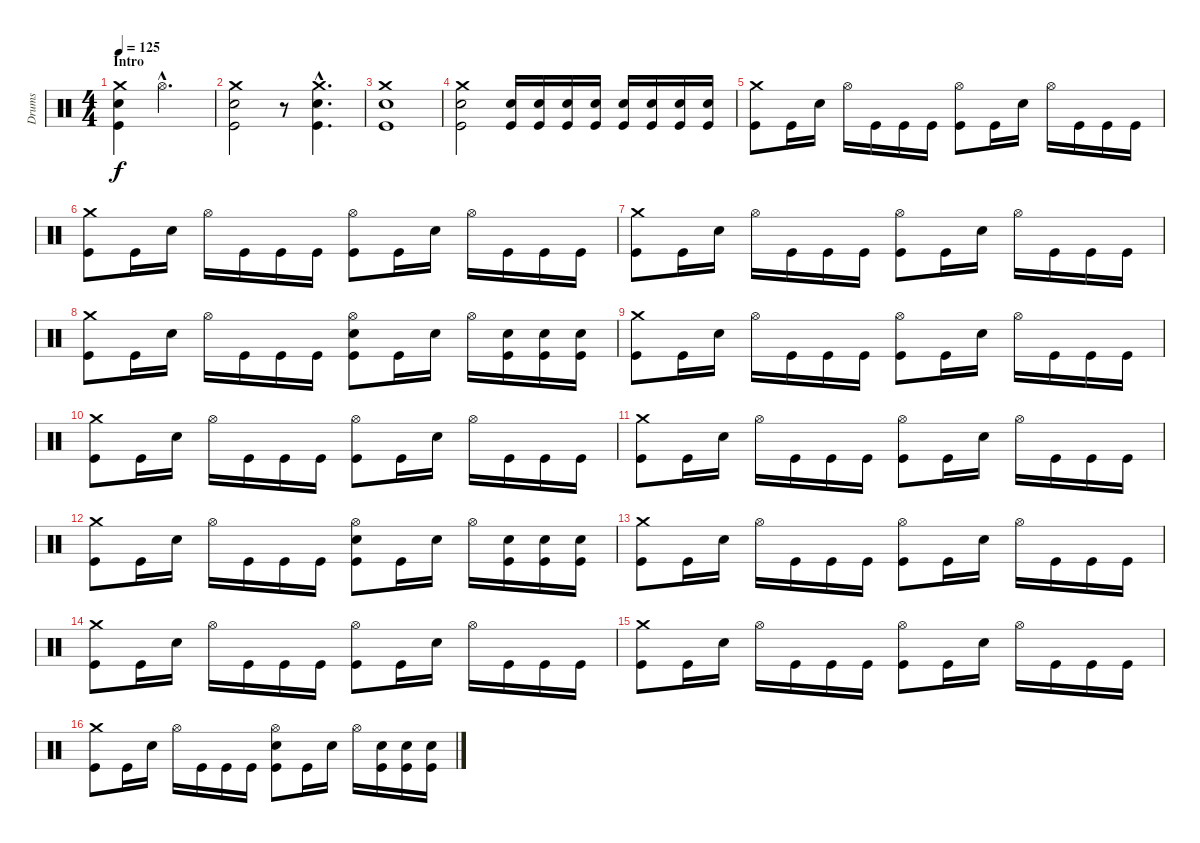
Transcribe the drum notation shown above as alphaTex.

\track ("Drums" "Drums") {instrument percussion}
\staff {score}
\articulation defaults
\ts (4 4)
\section ("" "Intro")
\tempo 125
\clef neutral
\ks c
("Crash medium (hit)" "Electric Snare (hit)" "Kick (hit)").4{dy f} "Hi-Hat (open)"{hac}.2{d} |
("Crash medium (hit)" "Electric Snare (hit)" "Kick (hit)").2 r.8 ("Crash medium (hit)"{hac} "Electric Snare (hit)"{hac} "Kick (hit)"{hac}).4{d} |
("Crash medium (hit)" "Electric Snare (hit)" "Kick (hit)").1 |
("Crash medium (hit)" "Electric Snare (hit)" "Kick (hit)").2 ("Electric Snare (hit)" "Kick (hit)").16 ("Electric Snare (hit)" "Kick (hit)").16 ("Electric Snare (hit)" "Kick (hit)").16 ("Electric Snare (hit)" "Kick (hit)").16 ("Electric Snare (hit)" "Kick (hit)").16 ("Electric Snare (hit)" "Kick (hit)").16 ("Electric Snare (hit)" "Kick (hit)").16 ("Electric Snare (hit)" "Kick (hit)").16 |
("Crash medium (hit)" "Kick (hit)").8 "Kick (hit)".16 "Electric Snare (hit)".16 "Hi-Hat (open)".16 "Kick (hit)".16 "Kick (hit)".16 "Kick (hit)".16 ("Hi-Hat (open)" "Kick (hit)").8 "Kick (hit)".16 "Electric Snare (hit)".16 "Hi-Hat (open)".16 "Kick (hit)".16 "Kick (hit)".16 "Kick (hit)".16 |
("Crash medium (hit)" "Kick (hit)").8 "Kick (hit)".16 "Electric Snare (hit)".16 "Hi-Hat (open)".16 "Kick (hit)".16 "Kick (hit)".16 "Kick (hit)".16 ("Hi-Hat (open)" "Kick (hit)").8 "Kick (hit)".16 "Electric Snare (hit)".16 "Hi-Hat (open)".16 "Kick (hit)".16 "Kick (hit)".16 "Kick (hit)".16 |
("Crash medium (hit)" "Kick (hit)").8 "Kick (hit)".16 "Electric Snare (hit)".16 "Hi-Hat (open)".16 "Kick (hit)".16 "Kick (hit)".16 "Kick (hit)".16 ("Hi-Hat (open)" "Kick (hit)").8 "Kick (hit)".16 "Electric Snare (hit)".16 "Hi-Hat (open)".16 "Kick (hit)".16 "Kick (hit)".16 "Kick (hit)".16 |
("Crash medium (hit)" "Kick (hit)").8 "Kick (hit)".16 "Electric Snare (hit)".16 "Hi-Hat (open)".16 "Kick (hit)".16 "Kick (hit)".16 "Kick (hit)".16 ("Hi-Hat (open)" "Electric Snare (hit)" "Kick (hit)").8 "Kick (hit)".16 "Electric Snare (hit)".16 "Hi-Hat (open)".16 ("Electric Snare (hit)" "Kick (hit)").16 ("Electric Snare (hit)" "Kick (hit)").16 ("Electric Snare (hit)" "Kick (hit)").16 |
("Crash medium (hit)" "Kick (hit)").8 "Kick (hit)".16 "Electric Snare (hit)".16 "Hi-Hat (open)".16 "Kick (hit)".16 "Kick (hit)".16 "Kick (hit)".16 ("Hi-Hat (open)" "Kick (hit)").8 "Kick (hit)".16 "Electric Snare (hit)".16 "Hi-Hat (open)".16 "Kick (hit)".16 "Kick (hit)".16 "Kick (hit)".16 |
("Crash medium (hit)" "Kick (hit)").8 "Kick (hit)".16 "Electric Snare (hit)".16 "Hi-Hat (open)".16 "Kick (hit)".16 "Kick (hit)".16 "Kick (hit)".16 ("Hi-Hat (open)" "Kick (hit)").8 "Kick (hit)".16 "Electric Snare (hit)".16 "Hi-Hat (open)".16 "Kick (hit)".16 "Kick (hit)".16 "Kick (hit)".16 |
("Crash medium (hit)" "Kick (hit)").8 "Kick (hit)".16 "Electric Snare (hit)".16 "Hi-Hat (open)".16 "Kick (hit)".16 "Kick (hit)".16 "Kick (hit)".16 ("Hi-Hat (open)" "Kick (hit)").8 "Kick (hit)".16 "Electric Snare (hit)".16 "Hi-Hat (open)".16 "Kick (hit)".16 "Kick (hit)".16 "Kick (hit)".16 |
("Crash medium (hit)" "Kick (hit)").8 "Kick (hit)".16 "Electric Snare (hit)".16 "Hi-Hat (open)".16 "Kick (hit)".16 "Kick (hit)".16 "Kick (hit)".16 ("Hi-Hat (open)" "Electric Snare (hit)" "Kick (hit)").8 "Kick (hit)".16 "Electric Snare (hit)".16 "Hi-Hat (open)".16 ("Electric Snare (hit)" "Kick (hit)").16 ("Electric Snare (hit)" "Kick (hit)").16 ("Electric Snare (hit)" "Kick (hit)").16 |
("Crash medium (hit)" "Kick (hit)").8 "Kick (hit)".16 "Electric Snare (hit)".16 "Hi-Hat (open)".16 "Kick (hit)".16 "Kick (hit)".16 "Kick (hit)".16 ("Hi-Hat (open)" "Kick (hit)").8 "Kick (hit)".16 "Electric Snare (hit)".16 "Hi-Hat (open)".16 "Kick (hit)".16 "Kick (hit)".16 "Kick (hit)".16 |
("Crash medium (hit)" "Kick (hit)").8 "Kick (hit)".16 "Electric Snare (hit)".16 "Hi-Hat (open)".16 "Kick (hit)".16 "Kick (hit)".16 "Kick (hit)".16 ("Hi-Hat (open)" "Kick (hit)").8 "Kick (hit)".16 "Electric Snare (hit)".16 "Hi-Hat (open)".16 "Kick (hit)".16 "Kick (hit)".16 "Kick (hit)".16 |
("Crash medium (hit)" "Kick (hit)").8 "Kick (hit)".16 "Electric Snare (hit)".16 "Hi-Hat (open)".16 "Kick (hit)".16 "Kick (hit)".16 "Kick (hit)".16 ("Hi-Hat (open)" "Kick (hit)").8 "Kick (hit)".16 "Electric Snare (hit)".16 "Hi-Hat (open)".16 "Kick (hit)".16 "Kick (hit)".16 "Kick (hit)".16 |
("Crash medium (hit)" "Kick (hit)").8 "Kick (hit)".16 "Electric Snare (hit)".16 "Hi-Hat (open)".16 "Kick (hit)".16 "Kick (hit)".16 "Kick (hit)".16 ("Hi-Hat (open)" "Electric Snare (hit)" "Kick (hit)").8 "Kick (hit)".16 "Electric Snare (hit)".16 "Hi-Hat (open)".16 ("Electric Snare (hit)" "Kick (hit)").16 ("Electric Snare (hit)" "Kick (hit)").16 ("Electric Snare (hit)" "Kick (hit)").16
